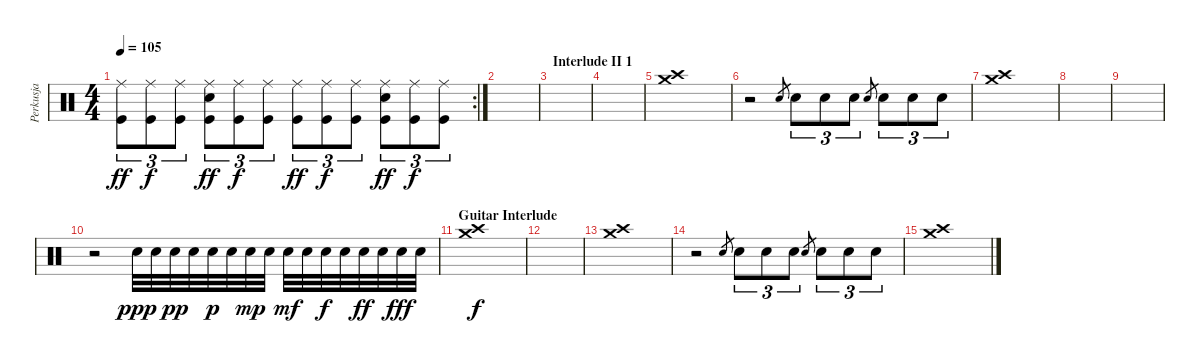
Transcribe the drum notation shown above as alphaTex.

\track ("Perkusja" "Perkusja") {instrument percussion}
\staff {score}
\articulation defaults
\rc 2
\ts (4 4)
\tempo 105
\clef neutral
\ks c
("Ride (middle)" "Kick (hit)").8{tu (3 2) dy ff} ("Ride (middle)" "Kick (hit)").8{tu (3 2) dy f} ("Ride (middle)" "Kick (hit)").8{tu (3 2)} ("Ride (middle)" "Snare (hit) 2" "Kick (hit)").8{tu (3 2) dy ff} ("Ride (middle)" "Kick (hit)").8{tu (3 2) dy f} ("Ride (middle)" "Kick (hit)").8{tu (3 2)} ("Ride (middle)" "Kick (hit)").8{tu (3 2) dy ff} ("Ride (middle)" "Kick (hit)").8{tu (3 2) dy f} ("Ride (middle)" "Kick (hit)").8{tu (3 2)} ("Ride (middle)" "Snare (hit) 2" "Kick (hit)").8{tu (3 2) dy ff} ("Ride (middle)" "Kick (hit)").8{tu (3 2) dy f} ("Ride (middle)" "Kick (hit)").8{tu (3 2)} |
|
\section ("" "Interlude II 1")
|
|
("Crash medium (hit)" "Crash high (hit)").1 |
r.2 "Electric Snare (hit)".8{gr} "Snare (hit) 2".8{tu (3 2)} "Snare (hit) 2".8{tu (3 2)} "Snare (hit) 2".8{tu (3 2)} "Electric Snare (hit)".8{gr} "Snare (hit) 2".8{tu (3 2)} "Snare (hit) 2".8{tu (3 2)} "Snare (hit) 2".8{tu (3 2)} |
("Crash medium (hit)" "Crash high (hit)").1 |
|
|
r.2 "Snare (hit) 2".32{dy ppp} "Snare (hit) 2".32 "Snare (hit) 2".32{dy pp} "Snare (hit) 2".32 "Snare (hit) 2".32{dy p} "Snare (hit) 2".32 "Snare (hit) 2".32{dy mp} "Snare (hit) 2".32 "Snare (hit) 2".32{dy mf} "Snare (hit) 2".32 "Snare (hit) 2".32{dy f} "Snare (hit) 2".32 "Snare (hit) 2".32{dy ff} "Snare (hit) 2".32 "Snare (hit) 2".32{dy fff} "Snare (hit) 2".32 |
\section ("" "Guitar Interlude")
("Crash medium (hit)" "Crash high (hit)").1{dy f} |
|
("Crash medium (hit)" "Crash high (hit)").1 |
r.2 "Electric Snare (hit)".8{gr} "Snare (hit) 2".8{tu (3 2)} "Snare (hit) 2".8{tu (3 2)} "Snare (hit) 2".8{tu (3 2)} "Electric Snare (hit)".8{gr} "Snare (hit) 2".8{tu (3 2)} "Snare (hit) 2".8{tu (3 2)} "Snare (hit) 2".8{tu (3 2)} |
("Crash medium (hit)" "Crash high (hit)").1
